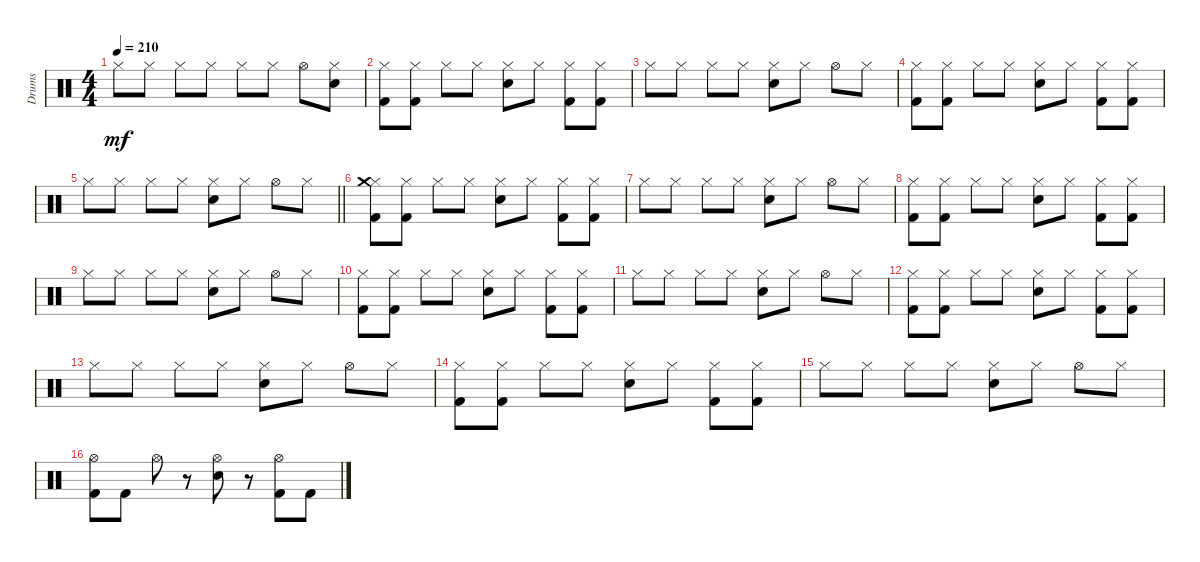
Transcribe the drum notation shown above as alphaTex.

\track ("Drums" "Drums") {instrument percussion}
\staff {score}
\articulation defaults
\ts (4 4)
\tempo 210
\clef neutral
\ks c "Hi-Hat (closed)".8{dy mf} "Hi-Hat (closed)".8 "Hi-Hat (closed)".8 "Hi-Hat (closed)".8 "Hi-Hat (closed)".8 "Hi-Hat (closed)".8 "Hi-Hat (open)".8
("Hi-Hat (closed)" "Electric Snare (hit)").8 |
("Hi-Hat (closed)" "Kick (hit) 2").8 ("Hi-Hat (closed)" "Kick (hit) 2").8 "Hi-Hat (closed)".8 "Hi-Hat (closed)".8 ("Hi-Hat (closed)" "Electric Snare (hit)").8 "Hi-Hat (closed)".8 ("Hi-Hat (closed)" "Kick (hit) 2").8 ("Hi-Hat (closed)" "Kick (hit) 2").8 |
"Hi-Hat (closed)".8 "Hi-Hat (closed)".8 "Hi-Hat (closed)".8 "Hi-Hat (closed)".8 ("Hi-Hat (closed)" "Electric Snare (hit)").8 "Hi-Hat (closed)".8 "Hi-Hat (open)".8 "Hi-Hat (closed)".8 |
("Hi-Hat (closed)" "Kick (hit) 2").8 ("Hi-Hat (closed)" "Kick (hit) 2").8 "Hi-Hat (closed)".8 "Hi-Hat (closed)".8 ("Hi-Hat (closed)" "Electric Snare (hit)").8 "Hi-Hat (closed)".8 ("Hi-Hat (closed)" "Kick (hit) 2").8 ("Hi-Hat (closed)" "Kick (hit) 2").8 |
\barLineRight lightlight "Hi-Hat (closed)".8 "Hi-Hat (closed)".8 "Hi-Hat (closed)".8 "Hi-Hat (closed)".8
("Hi-Hat (closed)" "Electric Snare (hit)").8 "Hi-Hat (closed)".8 "Hi-Hat (open)".8 "Hi-Hat (closed)".8 |
("Hi-Hat (closed)" "Crash medium (hit)" "Kick (hit) 2").8 ("Hi-Hat (closed)" "Kick (hit) 2").8 "Hi-Hat (closed)".8 "Hi-Hat (closed)".8 ("Hi-Hat (closed)" "Electric Snare (hit)").8 "Hi-Hat (closed)".8 ("Hi-Hat (closed)" "Kick (hit) 2").8 ("Hi-Hat (closed)" "Kick (hit) 2").8 |
"Hi-Hat (closed)".8 "Hi-Hat (closed)".8 "Hi-Hat (closed)".8 "Hi-Hat (closed)".8 ("Hi-Hat (closed)" "Electric Snare (hit)").8 "Hi-Hat (closed)".8 "Hi-Hat (open)".8 "Hi-Hat (closed)".8 |
("Hi-Hat (closed)" "Kick (hit) 2").8 ("Hi-Hat (closed)" "Kick (hit) 2").8 "Hi-Hat (closed)".8 "Hi-Hat (closed)".8 ("Hi-Hat (closed)" "Electric Snare (hit)").8 "Hi-Hat (closed)".8 ("Hi-Hat (closed)" "Kick (hit) 2").8 ("Hi-Hat (closed)" "Kick (hit) 2").8 |
"Hi-Hat (closed)".8 "Hi-Hat (closed)".8 "Hi-Hat (closed)".8 "Hi-Hat (closed)".8 ("Hi-Hat (closed)" "Electric Snare (hit)").8 "Hi-Hat (closed)".8 "Hi-Hat (open)".8 "Hi-Hat (closed)".8 |
("Hi-Hat (closed)" "Kick (hit) 2").8 ("Hi-Hat (closed)" "Kick (hit) 2").8 "Hi-Hat (closed)".8 "Hi-Hat (closed)".8 ("Hi-Hat (closed)" "Electric Snare (hit)").8 "Hi-Hat (closed)".8 ("Hi-Hat (closed)" "Kick (hit) 2").8 ("Hi-Hat (closed)" "Kick (hit) 2").8 |
"Hi-Hat (closed)".8 "Hi-Hat (closed)".8 "Hi-Hat (closed)".8 "Hi-Hat (closed)".8 ("Hi-Hat (closed)" "Electric Snare (hit)").8 "Hi-Hat (closed)".8 "Hi-Hat (open)".8 "Hi-Hat (closed)".8 |
("Hi-Hat (closed)" "Kick (hit) 2").8 ("Hi-Hat (closed)" "Kick (hit) 2").8 "Hi-Hat (closed)".8 "Hi-Hat (closed)".8 ("Hi-Hat (closed)" "Electric Snare (hit)").8 "Hi-Hat (closed)".8 ("Hi-Hat (closed)" "Kick (hit) 2").8 ("Hi-Hat (closed)" "Kick (hit) 2").8 |
"Hi-Hat (closed)".8 "Hi-Hat (closed)".8 "Hi-Hat (closed)".8 "Hi-Hat (closed)".8 ("Hi-Hat (closed)" "Electric Snare (hit)").8 "Hi-Hat (closed)".8 "Hi-Hat (open)".8 "Hi-Hat (closed)".8 |
("Hi-Hat (closed)" "Kick (hit) 2").8 ("Hi-Hat (closed)" "Kick (hit) 2").8 "Hi-Hat (closed)".8 "Hi-Hat (closed)".8 ("Hi-Hat (closed)" "Electric Snare (hit)").8 "Hi-Hat (closed)".8 ("Hi-Hat (closed)" "Kick (hit) 2").8 ("Hi-Hat (closed)" "Kick (hit) 2").8 |
"Hi-Hat (closed)".8 "Hi-Hat (closed)".8 "Hi-Hat (closed)".8 "Hi-Hat (closed)".8 ("Hi-Hat (closed)" "Electric Snare (hit)").8 "Hi-Hat (closed)".8 "Hi-Hat (open)".8 "Hi-Hat (closed)".8 |
("Hi-Hat (open)" "Kick (hit) 2").8 "Kick (hit) 2".8 "Hi-Hat (open)".8 r.8 ("Hi-Hat (open)" "Electric Snare (hit)").8 r.8 ("Hi-Hat (open)" "Kick (hit) 2").8 "Kick (hit) 2".8
